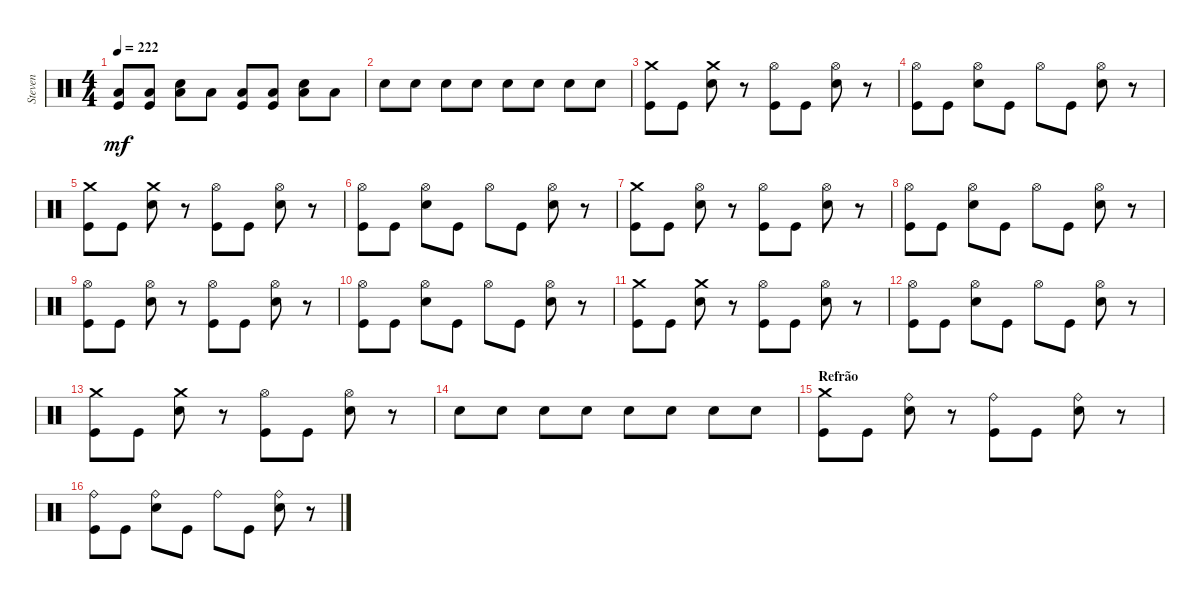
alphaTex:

\track ("Steven" "Steven") {instrument percussion}
\staff {score}
\articulation defaults
\ts (4 4)
\tempo 222
\clef neutral
\ks c
("Kick (hit)" "Low Tom (hit)").8{dy mf} ("Kick (hit)" "Low Tom (hit)").8 ("Snare (hit) 2" "Low Tom (hit)").8 "Low Tom (hit)".8 ("Kick (hit)" "Low Tom (hit)").8 ("Kick (hit)" "Low Tom (hit)").8 ("Snare (hit) 2" "Low Tom (hit)").8 "Low Tom (hit)".8 |
"Snare (hit) 2".8 "Snare (hit) 2".8 "Snare (hit) 2".8 "Snare (hit) 2".8 "Snare (hit) 2".8 "Snare (hit) 2".8 "Snare (hit) 2".8 "Snare (hit) 2".8 |
("Kick (hit)" "Crash medium (hit)").8 "Kick (hit)".8 ("Snare (hit) 2" "Crash medium (hit)").8 r.8 ("Kick (hit)" "Hi-Hat (open)").8 "Kick (hit)".8 ("Snare (hit) 2" "Hi-Hat (open)").8 r.8 |
("Kick (hit)" "Hi-Hat (open)").8 "Kick (hit)".8 ("Snare (hit) 2" "Hi-Hat (open)").8 "Kick (hit)".8 "Hi-Hat (open)".8 "Kick (hit)".8 ("Snare (hit) 2" "Hi-Hat (open)").8 r.8 |
("Kick (hit)" "Crash medium (hit)").8 "Kick (hit)".8 ("Snare (hit) 2" "Crash medium (hit)").8 r.8 ("Kick (hit)" "Hi-Hat (open)").8 "Kick (hit)".8 ("Snare (hit) 2" "Hi-Hat (open)").8 r.8 |
("Kick (hit)" "Hi-Hat (open)").8 "Kick (hit)".8 ("Snare (hit) 2" "Hi-Hat (open)").8 "Kick (hit)".8 "Hi-Hat (open)".8 "Kick (hit)".8 ("Snare (hit) 2" "Hi-Hat (open)").8 r.8 |
("Kick (hit)" "Crash medium (hit)").8 "Kick (hit)".8 ("Snare (hit) 2" "Hi-Hat (open)").8 r.8 ("Kick (hit)" "Hi-Hat (open)").8 "Kick (hit)".8 ("Snare (hit) 2" "Hi-Hat (open)").8 r.8 |
("Kick (hit)" "Hi-Hat (open)").8 "Kick (hit)".8 ("Snare (hit) 2" "Hi-Hat (open)").8 "Kick (hit)".8 "Hi-Hat (open)".8 "Kick (hit)".8 ("Snare (hit) 2" "Hi-Hat (open)").8 r.8 |
("Kick (hit)" "Hi-Hat (open)").8 "Kick (hit)".8 ("Snare (hit) 2" "Hi-Hat (open)").8 r.8 ("Kick (hit)" "Hi-Hat (open)").8 "Kick (hit)".8 ("Snare (hit) 2" "Hi-Hat (open)").8 r.8 |
("Kick (hit)" "Hi-Hat (open)").8 "Kick (hit)".8 ("Snare (hit) 2" "Hi-Hat (open)").8 "Kick (hit)".8 "Hi-Hat (open)".8 "Kick (hit)".8 ("Snare (hit) 2" "Hi-Hat (open)").8 r.8 |
("Kick (hit)" "Crash medium (hit)").8 "Kick (hit)".8 ("Snare (hit) 2" "Crash medium (hit)").8 r.8 ("Kick (hit)" "Hi-Hat (open)").8 "Kick (hit)".8 ("Snare (hit) 2" "Hi-Hat (open)").8 r.8 |
("Kick (hit)" "Hi-Hat (open)").8 "Kick (hit)".8 ("Snare (hit) 2" "Hi-Hat (open)").8 "Kick (hit)".8 "Hi-Hat (open)".8 "Kick (hit)".8 ("Snare (hit) 2" "Hi-Hat (open)").8 r.8 |
("Kick (hit)" "Crash medium (hit)").8 "Kick (hit)".8 ("Snare (hit) 2" "Crash medium (hit)").8 r.8 ("Kick (hit)" "Hi-Hat (open)").8 "Kick (hit)".8 ("Snare (hit) 2" "Hi-Hat (open)").8 r.8 |
"Snare (hit) 2".8 "Snare (hit) 2".8 "Snare (hit) 2".8 "Snare (hit) 2".8 "Snare (hit) 2".8 "Snare (hit) 2".8 "Snare (hit) 2".8 "Snare (hit) 2".8 |
\section ("" "Refrão")
("Kick (hit)" "Crash medium (hit)").8 "Kick (hit)".8 ("Snare (hit) 2" "Ride (bell)").8 r.8 ("Kick (hit)" "Ride (bell)").8 "Kick (hit)".8 ("Snare (hit) 2" "Ride (bell)").8 r.8 |
("Kick (hit)" "Ride (bell)").8 "Kick (hit)".8 ("Snare (hit) 2" "Ride (bell)").8 "Kick (hit)".8 "Ride (bell)".8 "Kick (hit)".8 ("Snare (hit) 2" "Ride (bell)").8 r.8
